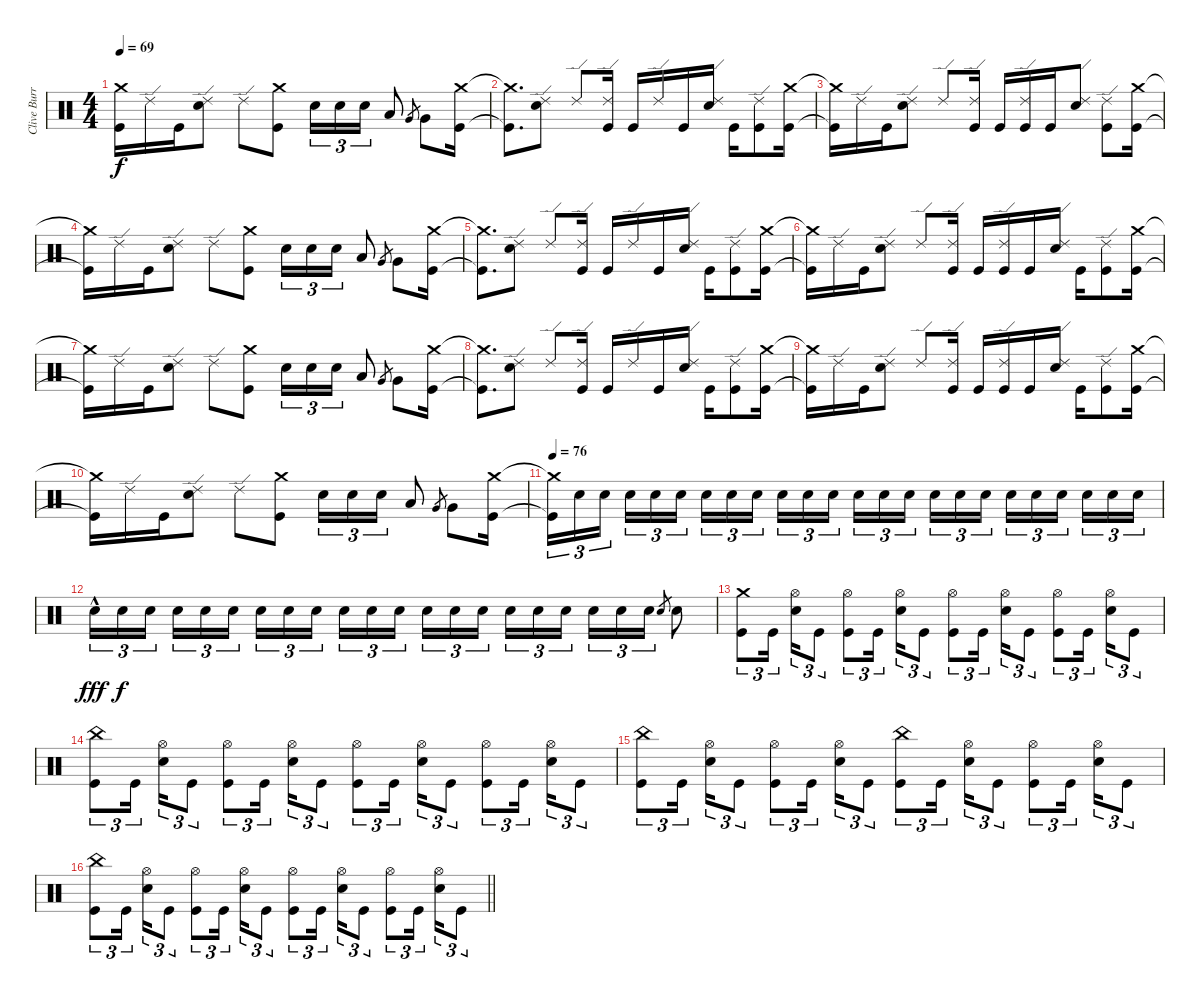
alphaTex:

\track ("Clive Burr" "Clive Burr") {instrument percussion}
\staff {score}
\articulation defaults
\ts (4 4)
\tempo 69
\clef neutral
\ks c
("Crash medium (hit)"{t} "Kick (hit)"{t}).16{dy f} "Ride (edge) 2".16 "Kick (hit)".16 ("Ride (edge) 2" "Electric Snare (hit)").8 "Ride (edge) 2".8 ("Crash medium (hit)" "Kick (hit)").8 "Electric Snare (hit)".16{tu (3 2)} "Electric Snare (hit)".16{tu (3 2)} "Electric Snare (hit)".16{tu (3 2)} "Low Tom (hit)".8 "Very Low Tom (hit)".8{gr} "Very Low Tom (hit)".8 ("Crash medium (hit)" "Kick (hit)").16 |
("Crash medium (hit)"{t} "Kick (hit)"{t}).8{d} ("Ride (edge) 2" "Electric Snare (hit)").8 "Ride (edge) 2".8 ("Ride (edge) 2" "Kick (hit)").16 "Kick (hit)".16 "Ride (edge) 2".16 "Kick (hit)".16 ("Ride (edge) 2" "Electric Snare (hit)").16 "Kick (hit)".16 ("Ride (edge) 2" "Kick (hit)").8 ("Crash medium (hit)" "Kick (hit)").16 |
("Crash medium (hit)"{t} "Kick (hit)"{t}).16 "Ride (edge) 2".16 "Kick (hit)".16 ("Ride (edge) 2" "Electric Snare (hit)").8 "Ride (edge) 2".8 ("Ride (edge) 2" "Kick (hit)").16 "Kick (hit)".16 ("Ride (edge) 2" "Kick (hit)").16 "Kick (hit)".16 ("Ride (edge) 2" "Electric Snare (hit)").8 ("Ride (edge) 2" "Kick (hit)").8 ("Crash medium (hit)" "Kick (hit)").16 |
("Crash medium (hit)"{t} "Kick (hit)"{t}).16 "Ride (edge) 2".16 "Kick (hit)".16 ("Ride (edge) 2" "Electric Snare (hit)").8 "Ride (edge) 2".8 ("Crash medium (hit)" "Kick (hit)").8 "Electric Snare (hit)".16{tu (3 2)} "Electric Snare (hit)".16{tu (3 2)} "Electric Snare (hit)".16{tu (3 2)} "Low Tom (hit)".8 "Very Low Tom (hit)".8{gr} "Very Low Tom (hit)".8 ("Crash medium (hit)" "Kick (hit)").16 |
("Crash medium (hit)"{t} "Kick (hit)"{t}).8{d} ("Ride (edge) 2" "Electric Snare (hit)").8 "Ride (edge) 2".8 ("Ride (edge) 2" "Kick (hit)").16 "Kick (hit)".16 "Ride (edge) 2".16 "Kick (hit)".16 ("Ride (edge) 2" "Electric Snare (hit)").16 "Kick (hit)".16 ("Ride (edge) 2" "Kick (hit)").8 ("Crash medium (hit)" "Kick (hit)").16 |
("Crash medium (hit)"{t} "Kick (hit)"{t}).16 "Ride (edge) 2".16 "Kick (hit)".16 ("Ride (edge) 2" "Electric Snare (hit)").8 "Ride (edge) 2".8 ("Ride (edge) 2" "Kick (hit)").16 "Kick (hit)".16 ("Ride (edge) 2" "Kick (hit)").16 "Kick (hit)".16 ("Ride (edge) 2" "Electric Snare (hit)").16 "Kick (hit)".16 ("Ride (edge) 2" "Kick (hit)").8 ("Crash medium (hit)" "Kick (hit)").16 |
("Crash medium (hit)"{t} "Kick (hit)"{t}).16 "Ride (edge) 2".16 "Kick (hit)".16 ("Ride (edge) 2" "Electric Snare (hit)").8 "Ride (edge) 2".8 ("Crash medium (hit)" "Kick (hit)").8 "Electric Snare (hit)".16{tu (3 2)} "Electric Snare (hit)".16{tu (3 2)} "Electric Snare (hit)".16{tu (3 2)} "Low Tom (hit)".8 "Very Low Tom (hit)".8{gr} "Very Low Tom (hit)".8 ("Crash medium (hit)" "Kick (hit)").16 |
("Crash medium (hit)"{t} "Kick (hit)"{t}).8{d} ("Ride (edge) 2" "Electric Snare (hit)").8 "Ride (edge) 2".8 ("Ride (edge) 2" "Kick (hit)").16 "Kick (hit)".16 "Ride (edge) 2".16 "Kick (hit)".16 ("Ride (edge) 2" "Electric Snare (hit)").16 "Kick (hit)".16 ("Ride (edge) 2" "Kick (hit)").8 ("Crash medium (hit)" "Kick (hit)").16 |
("Crash medium (hit)"{t} "Kick (hit)"{t}).16 "Ride (edge) 2".16 "Kick (hit)".16 ("Ride (edge) 2" "Electric Snare (hit)").8 "Ride (edge) 2".8 ("Ride (edge) 2" "Kick (hit)").16 "Kick (hit)".16 ("Ride (edge) 2" "Kick (hit)").16 "Kick (hit)".16 ("Ride (edge) 2" "Electric Snare (hit)").16 "Kick (hit)".16 ("Ride (edge) 2" "Kick (hit)").8 ("Crash medium (hit)" "Kick (hit)").16 |
("Crash medium (hit)"{t} "Kick (hit)"{t}).16 "Ride (edge) 2".16 "Kick (hit)".16 ("Ride (edge) 2" "Electric Snare (hit)").8 "Ride (edge) 2".8 ("Crash medium (hit)" "Kick (hit)").8 "Electric Snare (hit)".16{tu (3 2)} "Electric Snare (hit)".16{tu (3 2)} "Electric Snare (hit)".16{tu (3 2)} "Low Tom (hit)".8 "Very Low Tom (hit)".8{gr} "Very Low Tom (hit)".8 ("Crash medium (hit)" "Kick (hit)").16 |
\tempo 76
("Crash medium (hit)"{t} "Kick (hit)"{t}).16{tu (3 2)} "Electric Snare (hit)".16{tu (3 2) volume 3} "Electric Snare (hit)".16{tu (3 2) volume 14 beam splitsecondary} "Electric Snare (hit)".16{tu (3 2)} "Electric Snare (hit)".16{tu (3 2)} "Electric Snare (hit)".16{tu (3 2)} "Electric Snare (hit)".16{tu (3 2)} "Electric Snare (hit)".16{tu (3 2)} "Electric Snare (hit)".16{tu (3 2) beam splitsecondary} "Electric Snare (hit)".16{tu (3 2)} "Electric Snare (hit)".16{tu (3 2)} "Electric Snare (hit)".16{tu (3 2)} "Electric Snare (hit)".16{tu (3 2)} "Electric Snare (hit)".16{tu (3 2)} "Electric Snare (hit)".16{tu (3 2) beam splitsecondary} "Electric Snare (hit)".16{tu (3 2)} "Electric Snare (hit)".16{tu (3 2)} "Electric Snare (hit)".16{tu (3 2)} "Electric Snare (hit)".16{tu (3 2)} "Electric Snare (hit)".16{tu (3 2)} "Electric Snare (hit)".16{tu (3 2) beam splitsecondary} "Electric Snare (hit)".16{tu (3 2)} "Electric Snare (hit)".16{tu (3 2)} "Electric Snare (hit)".16{tu (3 2)} |
"Electric Snare (hit)"{hac}.16{tu (3 2) dy fff} "Electric Snare (hit)".16{tu (3 2) dy f} "Electric Snare (hit)".16{tu (3 2) beam splitsecondary} "Electric Snare (hit)".16{tu (3 2)} "Electric Snare (hit)".16{tu (3 2)} "Electric Snare (hit)".16{tu (3 2)} "Electric Snare (hit)".16{tu (3 2)} "Electric Snare (hit)".16{tu (3 2)} "Electric Snare (hit)".16{tu (3 2) beam splitsecondary} "Electric Snare (hit)".16{tu (3 2)} "Electric Snare (hit)".16{tu (3 2)} "Electric Snare (hit)".16{tu (3 2)} "Electric Snare (hit)".16{tu (3 2)} "Electric Snare (hit)".16{tu (3 2)} "Electric Snare (hit)".16{tu (3 2) beam splitsecondary} "Electric Snare (hit)".16{tu (3 2)} "Electric Snare (hit)".16{tu (3 2)} "Electric Snare (hit)".16{tu (3 2)} "Electric Snare (hit)".16{tu (3 2)} "Electric Snare (hit)".16{tu (3 2)} "Electric Snare (hit)".16{tu (3 2)} "Electric Snare (hit)".8{gr} "Electric Snare (hit)".8 |
("Crash medium (hit)" "Kick (hit)").8{tu (3 2)} "Kick (hit)".16{tu (3 2) beam splitsecondary} ("Hi-Hat (open)" "Electric Snare (hit)").16{tu (3 2)} "Kick (hit)".8{tu (3 2)} ("Hi-Hat (open)" "Kick (hit)").8{tu (3 2)} "Kick (hit)".16{tu (3 2) beam splitsecondary} ("Hi-Hat (open)" "Electric Snare (hit)").16{tu (3 2)} "Kick (hit)".8{tu (3 2)} ("Hi-Hat (open)" "Kick (hit)").8{tu (3 2)} "Kick (hit)".16{tu (3 2) beam splitsecondary} ("Hi-Hat (open)" "Electric Snare (hit)").16{tu (3 2)} "Kick (hit)".8{tu (3 2)} ("Hi-Hat (open)" "Kick (hit)").8{tu (3 2)} "Kick (hit)".16{tu (3 2) beam splitsecondary} ("Hi-Hat (open)" "Electric Snare (hit)").16{tu (3 2)} "Kick (hit)".8{tu (3 2)} |
("China (hit)" "Kick (hit)").8{tu (3 2)} "Kick (hit)".16{tu (3 2) beam splitsecondary} ("Hi-Hat (open)" "Electric Snare (hit)").16{tu (3 2)} "Kick (hit)".8{tu (3 2)} ("Hi-Hat (open)" "Kick (hit)").8{tu (3 2)} "Kick (hit)".16{tu (3 2) beam splitsecondary} ("Hi-Hat (open)" "Electric Snare (hit)").16{tu (3 2)} "Kick (hit)".8{tu (3 2)} ("Hi-Hat (open)" "Kick (hit)").8{tu (3 2)} "Kick (hit)".16{tu (3 2) beam splitsecondary} ("Hi-Hat (open)" "Electric Snare (hit)").16{tu (3 2)} "Kick (hit)".8{tu (3 2)} ("Hi-Hat (open)" "Kick (hit)").8{tu (3 2)} "Kick (hit)".16{tu (3 2) beam splitsecondary} ("Hi-Hat (open)" "Electric Snare (hit)").16{tu (3 2)} "Kick (hit)".8{tu (3 2)} |
("China (hit)" "Kick (hit)").8{tu (3 2)} "Kick (hit)".16{tu (3 2) beam splitsecondary} ("Hi-Hat (open)" "Electric Snare (hit)").16{tu (3 2)} "Kick (hit)".8{tu (3 2)} ("Hi-Hat (open)" "Kick (hit)").8{tu (3 2)} "Kick (hit)".16{tu (3 2) beam splitsecondary} ("Hi-Hat (open)" "Electric Snare (hit)").16{tu (3 2)} "Kick (hit)".8{tu (3 2)} ("China (hit)" "Kick (hit)").8{tu (3 2)} "Kick (hit)".16{tu (3 2) beam splitsecondary} ("Hi-Hat (open)" "Electric Snare (hit)").16{tu (3 2)} "Kick (hit)".8{tu (3 2)} ("Hi-Hat (open)" "Kick (hit)").8{tu (3 2)} "Kick (hit)".16{tu (3 2) beam splitsecondary} ("Hi-Hat (open)" "Electric Snare (hit)").16{tu (3 2)} "Kick (hit)".8{tu (3 2)} |
\barLineRight lightlight
("China (hit)" "Kick (hit)").8{tu (3 2)} "Kick (hit)".16{tu (3 2) beam splitsecondary} ("Hi-Hat (open)" "Electric Snare (hit)").16{tu (3 2)} "Kick (hit)".8{tu (3 2)} ("Hi-Hat (open)" "Kick (hit)").8{tu (3 2)} "Kick (hit)".16{tu (3 2) beam splitsecondary} ("Hi-Hat (open)" "Electric Snare (hit)").16{tu (3 2)} "Kick (hit)".8{tu (3 2)} ("Hi-Hat (open)" "Kick (hit)").8{tu (3 2)} "Kick (hit)".16{tu (3 2) beam splitsecondary} ("Hi-Hat (open)" "Electric Snare (hit)").16{tu (3 2)} "Kick (hit)".8{tu (3 2)} ("Hi-Hat (open)" "Kick (hit)").8{tu (3 2)} "Kick (hit)".16{tu (3 2) beam splitsecondary} ("Hi-Hat (open)" "Electric Snare (hit)").16{tu (3 2)} "Kick (hit)".8{tu (3 2)}
